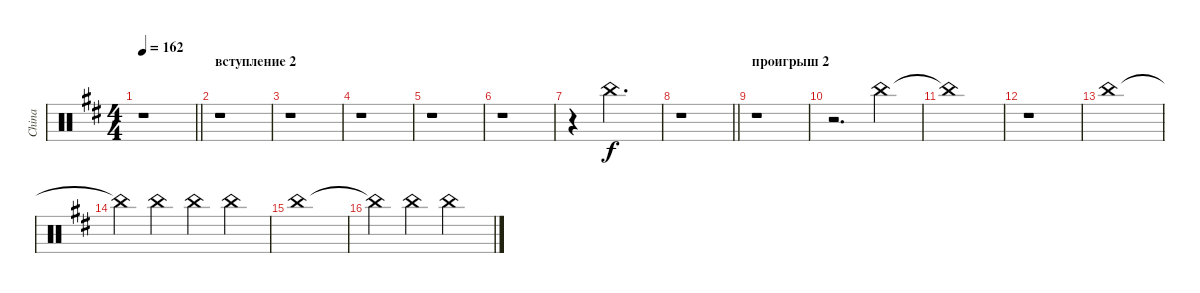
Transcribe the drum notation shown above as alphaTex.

\track ("China" "China") {instrument percussion}
\staff {score}
\articulation defaults
\ts (4 4)
\tempo 162
\clef neutral
\barLineRight lightlight
\ks bminor
r.1{dy f} |
\section ("" "вступление 2")
r.1 |
r.1 |
r.1 |
r.1 |
r.1 |
r.4 "China (hit)".2{d} |
\barLineRight lightlight
r.1 |
\section ("" "проигрыш 2")
r.1 |
r.2{d} "China (hit)".4 |
"China (hit)"{t}.1 |
r.1 |
"China (hit)".1 |
"China (hit)"{t}.4 "China (hit)".4 "China (hit)".4 "China (hit)".4 |
"China (hit)".1 |
"China (hit)"{t}.4 "China (hit)".4 "China (hit)".2
